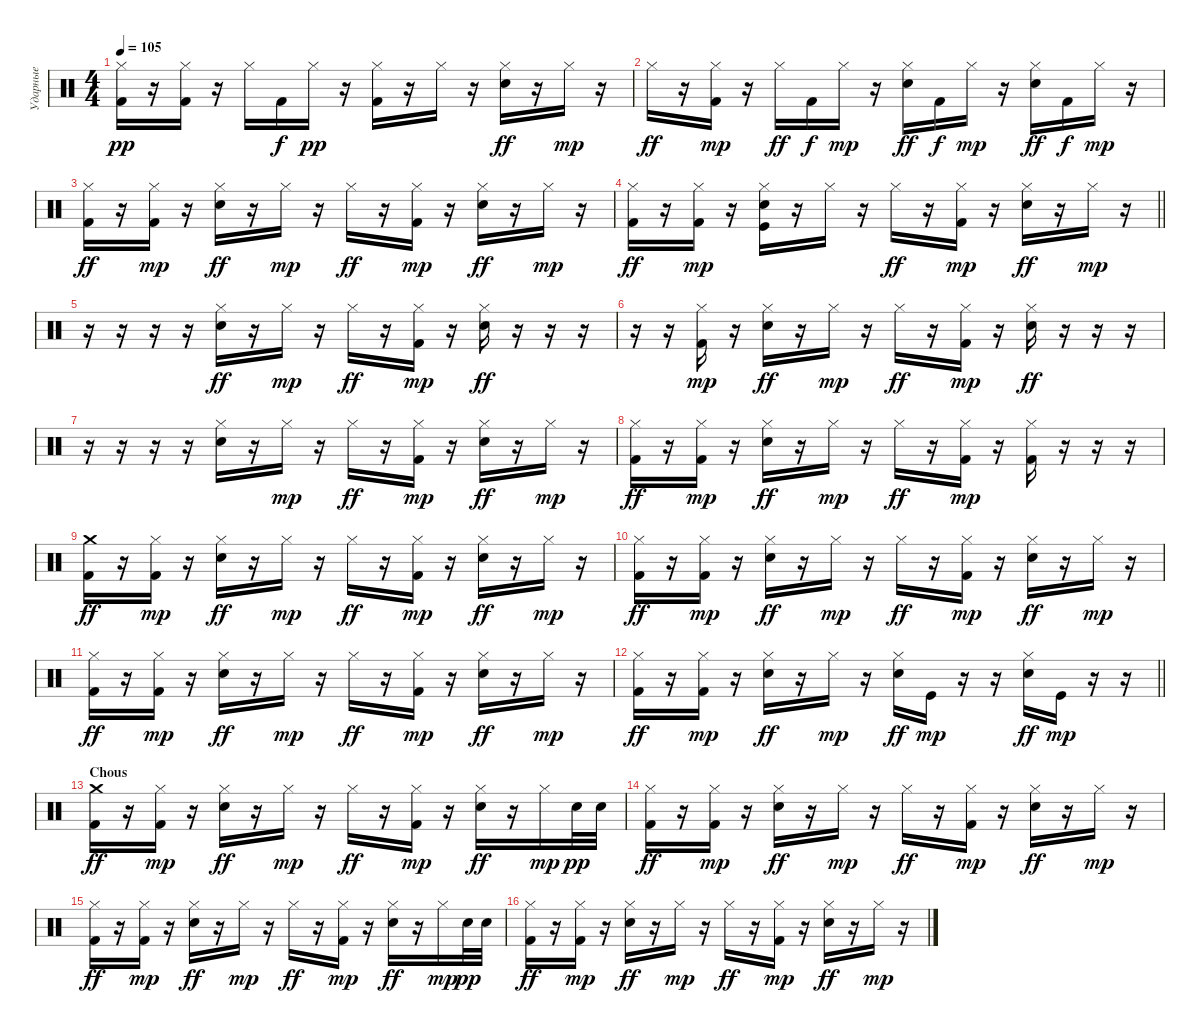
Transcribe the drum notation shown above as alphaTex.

\track ("Ударные" "Ударные") {instrument percussion}
\staff {score}
\articulation defaults
\ts (4 4)
\tempo 105
\clef neutral
\ks c
("Hi-Hat (closed)" "Kick (hit) 2").16{dy pp} r.16 ("Hi-Hat (closed)" "Kick (hit) 2").16 r.16 "Hi-Hat (closed)".16 "Kick (hit) 2".16{dy f} "Hi-Hat (closed)".16{dy pp} r.16 ("Hi-Hat (closed)" "Kick (hit) 2").16 r.16 "Hi-Hat (closed)".16 r.16 ("Hi-Hat (closed)" "Electric Snare (hit)").16{dy ff} r.16 "Hi-Hat (closed)".16{dy mp} r.16 |
"Hi-Hat (closed)".16{dy ff} r.16 ("Hi-Hat (closed)" "Kick (hit) 2").16{dy mp} r.16 "Hi-Hat (closed)".16{dy ff} "Kick (hit) 2".16{dy f} "Hi-Hat (closed)".16{dy mp} r.16 ("Hi-Hat (closed)" "Electric Snare (hit)").16{dy ff} "Kick (hit) 2".16{dy f} "Hi-Hat (closed)".16{dy mp} r.16 ("Hi-Hat (closed)" "Electric Snare (hit)").16{dy ff} "Kick (hit) 2".16{dy f} "Hi-Hat (closed)".16{dy mp} r.16 |
("Hi-Hat (closed)" "Kick (hit) 2").16{dy ff} r.16 ("Hi-Hat (closed)" "Kick (hit) 2").16{dy mp} r.16 ("Hi-Hat (closed)" "Electric Snare (hit)").16{dy ff} r.16 "Hi-Hat (closed)".16{dy mp} r.16 "Hi-Hat (closed)".16{dy ff} r.16 ("Hi-Hat (closed)" "Kick (hit) 2").16{dy mp} r.16 ("Hi-Hat (closed)" "Electric Snare (hit)").16{dy ff} r.16 "Hi-Hat (closed)".16{dy mp} r.16 |
\barLineRight lightlight
("Hi-Hat (closed)" "Kick (hit) 2").16{dy ff} r.16 ("Hi-Hat (closed)" "Kick (hit) 2").16{dy mp} r.16 ("Hi-Hat (closed)" "Electric Snare (hit)" "Kick (hit)").16 r.16 "Hi-Hat (closed)".16 r.16 "Hi-Hat (closed)".16{dy ff} r.16 ("Hi-Hat (closed)" "Kick (hit) 2").16{dy mp} r.16 ("Hi-Hat (closed)" "Electric Snare (hit)").16{dy ff} r.16 "Hi-Hat (closed)".16{dy mp} r.16 |
r.16 r.16 r.16 r.16 ("Hi-Hat (closed)" "Electric Snare (hit)").16{dy ff} r.16 "Hi-Hat (closed)".16{dy mp} r.16 "Hi-Hat (closed)".16{dy ff} r.16 ("Hi-Hat (closed)" "Kick (hit) 2").16{dy mp} r.16 ("Hi-Hat (closed)" "Electric Snare (hit)").16{dy ff} r.16 r.16 r.16 |
r.16 r.16 ("Hi-Hat (closed)" "Kick (hit) 2").16{dy mp} r.16 ("Hi-Hat (closed)" "Electric Snare (hit)").16{dy ff} r.16 "Hi-Hat (closed)".16{dy mp} r.16 "Hi-Hat (closed)".16{dy ff} r.16 ("Hi-Hat (closed)" "Kick (hit) 2").16{dy mp} r.16 ("Hi-Hat (closed)" "Electric Snare (hit)").16{dy ff} r.16 r.16 r.16 |
r.16 r.16 r.16 r.16 ("Hi-Hat (closed)" "Electric Snare (hit)").16 r.16 "Hi-Hat (closed)".16{dy mp} r.16 "Hi-Hat (closed)".16{dy ff} r.16 ("Hi-Hat (closed)" "Kick (hit) 2").16{dy mp} r.16 ("Hi-Hat (closed)" "Electric Snare (hit)").16{dy ff} r.16 "Hi-Hat (closed)".16{dy mp} r.16 |
("Hi-Hat (closed)" "Kick (hit) 2").16{dy ff} r.16 ("Hi-Hat (closed)" "Kick (hit) 2").16{dy mp} r.16 ("Hi-Hat (closed)" "Electric Snare (hit)").16{dy ff} r.16 "Hi-Hat (closed)".16{dy mp} r.16 "Hi-Hat (closed)".16{dy ff} r.16 ("Hi-Hat (closed)" "Kick (hit) 2").16{dy mp} r.16 ("Hi-Hat (closed)" "Kick (hit) 2").16 r.16 r.16 r.16 |
("Crash medium (hit)" "Kick (hit) 2").16{dy ff} r.16 ("Hi-Hat (closed)" "Kick (hit) 2").16{dy mp} r.16 ("Hi-Hat (closed)" "Electric Snare (hit)").16{dy ff} r.16 "Hi-Hat (closed)".16{dy mp} r.16 "Hi-Hat (closed)".16{dy ff} r.16 ("Hi-Hat (closed)" "Kick (hit) 2").16{dy mp} r.16 ("Hi-Hat (closed)" "Electric Snare (hit)").16{dy ff} r.16 "Hi-Hat (closed)".16{dy mp} r.16 |
("Hi-Hat (closed)" "Kick (hit) 2").16{dy ff} r.16 ("Hi-Hat (closed)" "Kick (hit) 2").16{dy mp} r.16 ("Hi-Hat (closed)" "Electric Snare (hit)").16{dy ff} r.16 "Hi-Hat (closed)".16{dy mp} r.16 "Hi-Hat (closed)".16{dy ff} r.16 ("Hi-Hat (closed)" "Kick (hit) 2").16{dy mp} r.16 ("Hi-Hat (closed)" "Electric Snare (hit)").16{dy ff} r.16 "Hi-Hat (closed)".16{dy mp} r.16 |
("Hi-Hat (closed)" "Kick (hit) 2").16{dy ff} r.16 ("Hi-Hat (closed)" "Kick (hit) 2").16{dy mp} r.16 ("Hi-Hat (closed)" "Electric Snare (hit)").16{dy ff} r.16 "Hi-Hat (closed)".16{dy mp} r.16 "Hi-Hat (closed)".16{dy ff} r.16 ("Hi-Hat (closed)" "Kick (hit) 2").16{dy mp} r.16 ("Hi-Hat (closed)" "Electric Snare (hit)").16{dy ff} r.16 "Hi-Hat (closed)".16{dy mp} r.16 |
\barLineRight lightlight
("Hi-Hat (closed)" "Kick (hit) 2").16{dy ff} r.16 ("Hi-Hat (closed)" "Kick (hit) 2").16{dy mp} r.16 ("Hi-Hat (closed)" "Electric Snare (hit)").16{dy ff} r.16 "Hi-Hat (closed)".16{dy mp} r.16 ("Hi-Hat (closed)" "Electric Snare (hit)").16{dy ff} "Kick (hit)".16{dy mp} r.16 r.16 ("Hi-Hat (closed)" "Electric Snare (hit)").16{dy ff} "Kick (hit)".16{dy mp} r.16 r.16 |
\section ("" "Chous")
("Crash medium (hit)" "Kick (hit) 2").16{dy ff} r.16 ("Hi-Hat (closed)" "Kick (hit) 2").16{dy mp} r.16 ("Hi-Hat (closed)" "Electric Snare (hit)").16{dy ff} r.16 "Hi-Hat (closed)".16{dy mp} r.16 "Hi-Hat (closed)".16{dy ff} r.16 ("Hi-Hat (closed)" "Kick (hit) 2").16{dy mp} r.16 ("Hi-Hat (closed)" "Electric Snare (hit)").16{dy ff} r.16 "Hi-Hat (closed)".16{dy mp} "Electric Snare (hit)".32{dy pp} "Electric Snare (hit)".32 |
("Hi-Hat (closed)" "Kick (hit) 2").16{dy ff} r.16 ("Hi-Hat (closed)" "Kick (hit) 2").16{dy mp} r.16 ("Hi-Hat (closed)" "Electric Snare (hit)").16{dy ff} r.16 "Hi-Hat (closed)".16{dy mp} r.16 "Hi-Hat (closed)".16{dy ff} r.16 ("Hi-Hat (closed)" "Kick (hit) 2").16{dy mp} r.16 ("Hi-Hat (closed)" "Electric Snare (hit)").16{dy ff} r.16 "Hi-Hat (closed)".16{dy mp} r.16 |
("Hi-Hat (closed)" "Kick (hit) 2").16{dy ff} r.16 ("Hi-Hat (closed)" "Kick (hit) 2").16{dy mp} r.16 ("Hi-Hat (closed)" "Electric Snare (hit)").16{dy ff} r.16 "Hi-Hat (closed)".16{dy mp} r.16 "Hi-Hat (closed)".16{dy ff} r.16 ("Hi-Hat (closed)" "Kick (hit) 2").16{dy mp} r.16 ("Hi-Hat (closed)" "Electric Snare (hit)").16{dy ff} r.16 "Hi-Hat (closed)".16{dy mp} "Electric Snare (hit)".32{dy pp} "Electric Snare (hit)".32 |
("Hi-Hat (closed)" "Kick (hit) 2").16{dy ff} r.16 ("Hi-Hat (closed)" "Kick (hit) 2").16{dy mp} r.16 ("Hi-Hat (closed)" "Electric Snare (hit)").16{dy ff} r.16 "Hi-Hat (closed)".16{dy mp} r.16 "Hi-Hat (closed)".16{dy ff} r.16 ("Hi-Hat (closed)" "Kick (hit) 2").16{dy mp} r.16 ("Hi-Hat (closed)" "Electric Snare (hit)").16{dy ff} r.16 "Hi-Hat (closed)".16{dy mp} r.16
